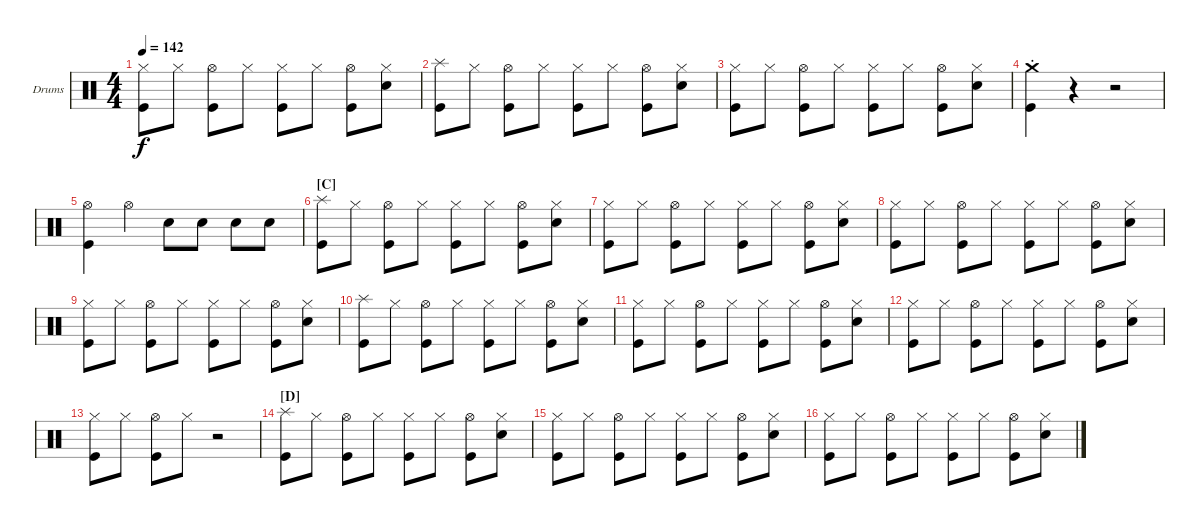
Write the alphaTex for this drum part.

\defaultSystemsLayout 4
\bracketExtendMode groupsimilarinstruments
\firstSystemTrackNameOrientation horizontal
\otherSystemsTrackNameOrientation horizontal
\track ("Drumkit" "Drums") {instrument percussion}
\staff {score}
\articulation defaults
\ts (4 4)
\tempo 142
\clef neutral
\ks c
("Kick (hit)" "Hi-Hat (closed)").8{dy f} "Hi-Hat (closed)".8 ("Hi-Hat (open)" "Kick (hit)").8 "Hi-Hat (closed)".8 ("Hi-Hat (closed)" "Kick (hit)").8 "Hi-Hat (closed)".8 ("Hi-Hat (open)" "Kick (hit)").8 ("Hi-Hat (closed)" "Snare (hit) 2").8 |
("Kick (hit)" "Splash (hit)").8 "Hi-Hat (closed)".8 ("Hi-Hat (open)" "Kick (hit)").8 "Hi-Hat (closed)".8 ("Hi-Hat (closed)" "Kick (hit)").8 "Hi-Hat (closed)".8 ("Hi-Hat (open)" "Kick (hit)").8 ("Hi-Hat (closed)" "Snare (hit) 2").8 |
("Kick (hit)" "Hi-Hat (closed)").8 "Hi-Hat (closed)".8 ("Hi-Hat (open)" "Kick (hit)").8 "Hi-Hat (closed)".8 ("Hi-Hat (closed)" "Kick (hit)").8 "Hi-Hat (closed)".8 ("Hi-Hat (open)" "Kick (hit)").8 ("Hi-Hat (closed)" "Snare (hit) 2").8 |
("Crash medium (hit)" "Kick (hit)"{st}).4 r.4 r.2 |
("Kick (hit)" "Hi-Hat (open)").4 "Hi-Hat (open)".4 "Snare (hit) 2".8 "Snare (hit) 2".8 "Snare (hit) 2".8 "Snare (hit) 2".8 |
\section ("C" "")
("Kick (hit)" "Splash (hit)").8 "Hi-Hat (closed)".8 ("Hi-Hat (open)" "Kick (hit)").8 "Hi-Hat (closed)".8 ("Hi-Hat (closed)" "Kick (hit)").8 "Hi-Hat (closed)".8 ("Hi-Hat (open)" "Kick (hit)").8 ("Hi-Hat (closed)" "Snare (hit) 2").8 |
("Kick (hit)" "Hi-Hat (closed)").8 "Hi-Hat (closed)".8 ("Hi-Hat (open)" "Kick (hit)").8 "Hi-Hat (closed)".8 ("Hi-Hat (closed)" "Kick (hit)").8 "Hi-Hat (closed)".8 ("Hi-Hat (open)" "Kick (hit)").8 ("Hi-Hat (closed)" "Snare (hit) 2").8 |
("Kick (hit)" "Hi-Hat (closed)").8 "Hi-Hat (closed)".8 ("Hi-Hat (open)" "Kick (hit)").8 "Hi-Hat (closed)".8 ("Hi-Hat (closed)" "Kick (hit)").8 "Hi-Hat (closed)".8 ("Hi-Hat (open)" "Kick (hit)").8 ("Hi-Hat (closed)" "Snare (hit) 2").8 |
("Kick (hit)" "Hi-Hat (closed)").8 "Hi-Hat (closed)".8 ("Hi-Hat (open)" "Kick (hit)").8 "Hi-Hat (closed)".8 ("Hi-Hat (closed)" "Kick (hit)").8 "Hi-Hat (closed)".8 ("Hi-Hat (open)" "Kick (hit)").8 ("Hi-Hat (closed)" "Snare (hit) 2").8 |
("Kick (hit)" "Splash (hit)").8 "Hi-Hat (closed)".8 ("Hi-Hat (open)" "Kick (hit)").8 "Hi-Hat (closed)".8 ("Hi-Hat (closed)" "Kick (hit)").8 "Hi-Hat (closed)".8 ("Hi-Hat (open)" "Kick (hit)").8 ("Hi-Hat (closed)" "Snare (hit) 2").8 |
("Kick (hit)" "Hi-Hat (closed)").8 "Hi-Hat (closed)".8 ("Hi-Hat (open)" "Kick (hit)").8 "Hi-Hat (closed)".8 ("Hi-Hat (closed)" "Kick (hit)").8 "Hi-Hat (closed)".8 ("Hi-Hat (open)" "Kick (hit)").8 ("Hi-Hat (closed)" "Snare (hit) 2").8 |
("Kick (hit)" "Hi-Hat (closed)").8 "Hi-Hat (closed)".8 ("Hi-Hat (open)" "Kick (hit)").8 "Hi-Hat (closed)".8 ("Hi-Hat (closed)" "Kick (hit)").8 "Hi-Hat (closed)".8 ("Hi-Hat (open)" "Kick (hit)").8 ("Hi-Hat (closed)" "Snare (hit) 2").8 |
("Kick (hit)" "Hi-Hat (closed)").8 "Hi-Hat (closed)".8 ("Hi-Hat (open)" "Kick (hit)").8 "Hi-Hat (closed)".8 r.2 |
\section ("D" "")
("Kick (hit)" "Splash (hit)").8 "Hi-Hat (closed)".8 ("Hi-Hat (open)" "Kick (hit)").8 "Hi-Hat (closed)".8 ("Hi-Hat (closed)" "Kick (hit)").8 "Hi-Hat (closed)".8 ("Hi-Hat (open)" "Kick (hit)").8 ("Hi-Hat (closed)" "Snare (hit) 2").8 |
("Kick (hit)" "Hi-Hat (closed)").8 "Hi-Hat (closed)".8 ("Hi-Hat (open)" "Kick (hit)").8 "Hi-Hat (closed)".8 ("Hi-Hat (closed)" "Kick (hit)").8 "Hi-Hat (closed)".8 ("Hi-Hat (open)" "Kick (hit)").8 ("Hi-Hat (closed)" "Snare (hit) 2").8 |
("Kick (hit)" "Hi-Hat (closed)").8 "Hi-Hat (closed)".8 ("Hi-Hat (open)" "Kick (hit)").8 "Hi-Hat (closed)".8 ("Hi-Hat (closed)" "Kick (hit)").8 "Hi-Hat (closed)".8 ("Hi-Hat (open)" "Kick (hit)").8 ("Hi-Hat (closed)" "Snare (hit) 2").8
